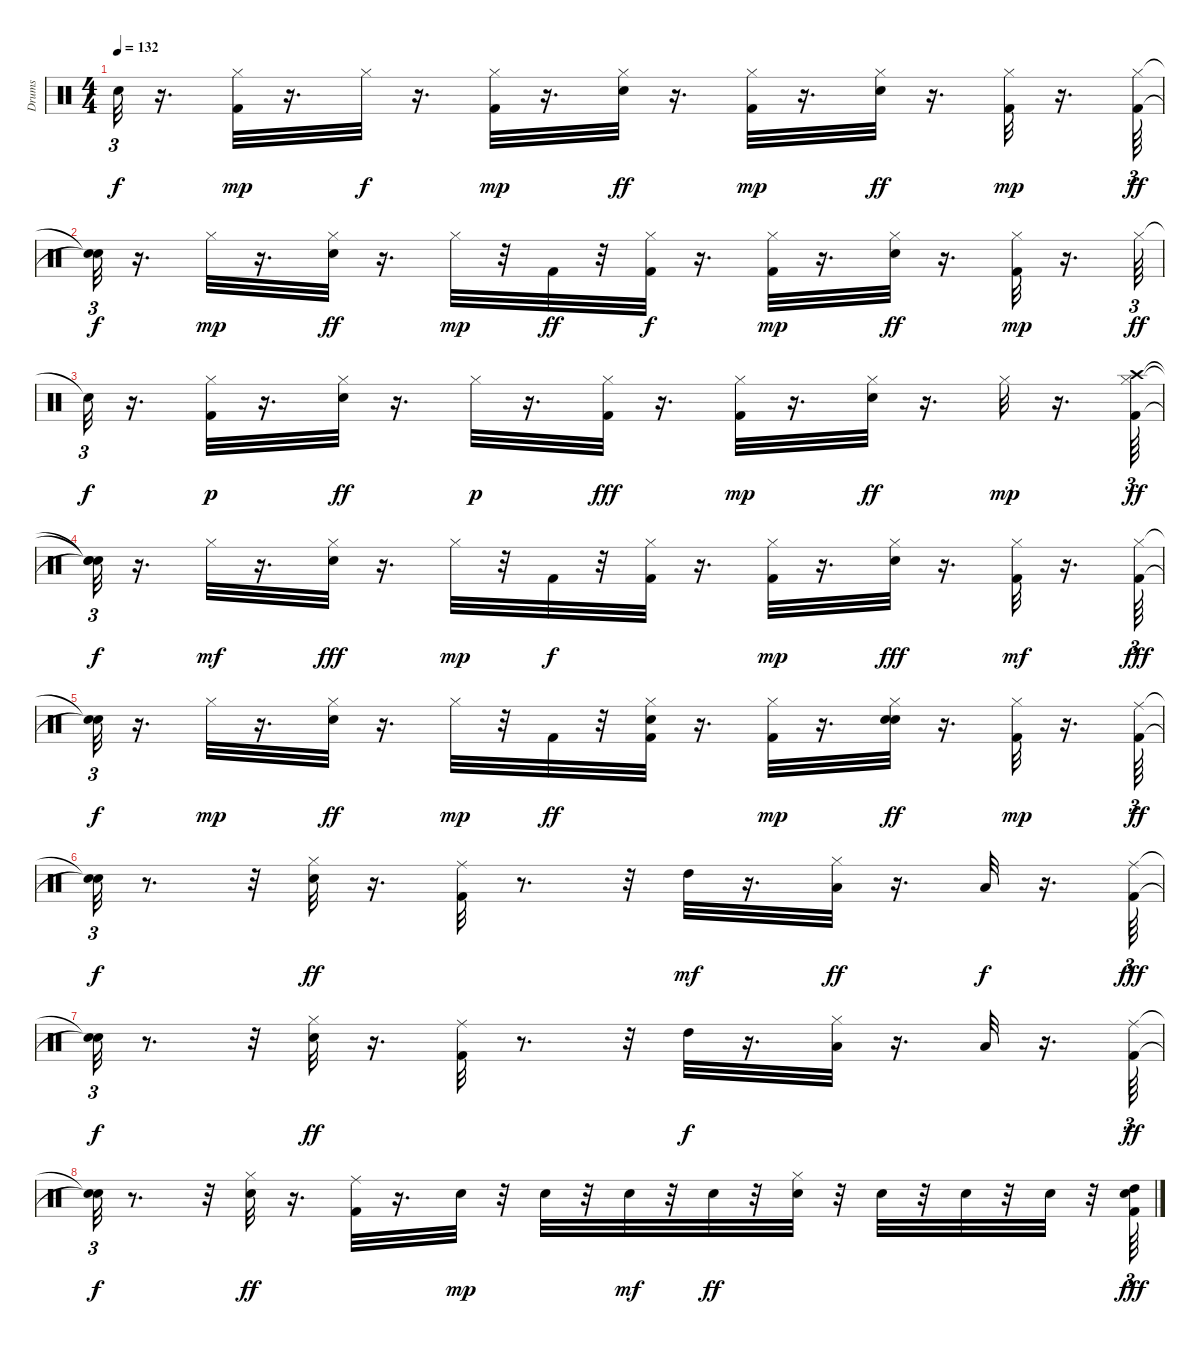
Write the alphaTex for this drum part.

\track ("Drums" "Drums") {instrument percussion}
\staff {score}
\articulation defaults
\ts (4 4)
\tempo 132
\clef neutral
\ks c "Snare (hit)"{t}.32{tu (3 2) dy f}
r.16{d} ("Kick (hit) 2" "Hi-Hat (closed)").32{dy mp} r.16{d} "Hi-Hat (closed)".32{dy f} r.16{d} ("Kick (hit) 2" "Hi-Hat (closed)").32{dy mp} r.16{d} ("Snare (hit) 2" "Hi-Hat (closed)").32{dy ff} r.16{d} ("Kick (hit) 2" "Hi-Hat (closed)").32{dy mp} r.16{d} ("Snare (hit) 2" "Hi-Hat (closed)").32{dy ff} r.16{d} ("Kick (hit) 2" "Hi-Hat (closed)").32{dy mp} r.16{d} ("Kick (hit) 2" "Hi-Hat (closed)").64{tu (3 2) dy ff} |
("Snare (hit)"{t} "Snare (hit)"{t}).32{tu (3 2) dy f} r.16{d} "Hi-Hat (closed)".32{dy mp} r.16{d} ("Snare (hit) 2" "Hi-Hat (closed)").32{dy ff} r.16{d} "Hi-Hat (closed)".32{dy mp} r.32 "Kick (hit) 2".32{dy ff} r.32 ("Kick (hit) 2" "Hi-Hat (closed)").32{dy f} r.16{d} ("Kick (hit) 2" "Hi-Hat (closed)").32{dy mp} r.16{d} ("Snare (hit) 2" "Hi-Hat (closed)").32{dy ff} r.16{d} ("Kick (hit) 2" "Hi-Hat (closed)").32{dy mp} r.16{d} "Hi-Hat (closed)".64{tu (3 2) dy ff} |
"Snare (hit)"{t}.32{tu (3 2) dy f} r.16{d} ("Kick (hit) 2" "Hi-Hat (closed)").32{dy p} r.16{d} ("Snare (hit) 2" "Hi-Hat (closed)").32{dy ff} r.16{d} "Hi-Hat (closed)".32{dy p} r.16{d} ("Kick (hit) 2" "Hi-Hat (closed)").32{dy fff} r.16{d} ("Kick (hit) 2" "Hi-Hat (closed)").32{dy mp} r.16{d} ("Snare (hit) 2" "Hi-Hat (closed)").32{dy ff} r.16{d} "Hi-Hat (closed)".32{dy mp} r.16{d} ("Kick (hit) 2" "Hi-Hat (closed)" "Crash high (hit)").64{tu (3 2) dy ff} |
("Snare (hit)"{t} "Snare (hit)"{t} "Snare (hit)"{t}).32{tu (3 2) dy f} r.16{d} "Hi-Hat (closed)".32{dy mf} r.16{d} ("Snare (hit) 2" "Hi-Hat (closed)").32{dy fff} r.16{d} "Hi-Hat (closed)".32{dy mp} r.32 "Kick (hit) 2".32{dy f} r.32 ("Kick (hit) 2" "Hi-Hat (closed)").32 r.16{d} ("Kick (hit) 2" "Hi-Hat (closed)").32{dy mp} r.16{d} ("Snare (hit) 2" "Hi-Hat (closed)").32{dy fff} r.16{d} ("Kick (hit) 2" "Hi-Hat (closed)").32{dy mf} r.16{d} ("Kick (hit) 2" "Hi-Hat (closed)").64{tu (3 2) dy fff} |
("Snare (hit)"{t} "Snare (hit)"{t}).32{tu (3 2) dy f} r.16{d} "Hi-Hat (closed)".32{dy mp} r.16{d} ("Snare (hit) 2" "Hi-Hat (closed)").32{dy ff} r.16{d} "Hi-Hat (closed)".32{dy mp} r.32 "Kick (hit) 2".32{dy ff} r.32 ("Kick (hit) 2" "Snare (hit) 2" "Hi-Hat (closed)").32 r.16{d} ("Kick (hit) 2" "Hi-Hat (closed)").32{dy mp} r.16{d} ("Snare (hit) 2" "Snare (hit) 2" "Hi-Hat (closed)").32{dy ff} r.16{d} ("Kick (hit) 2" "Hi-Hat (closed)").32{dy mp} r.16{d} ("Kick (hit) 2" "Ride (middle)").64{tu (3 2) dy ff} |
("Snare (hit)"{t} "Snare (hit)"{t}).32{tu (3 2) dy f} r.8{d} r.32 ("Snare (hit) 2" "Hi-Hat (closed)").32{dy ff} r.16{d} ("Kick (hit) 2" "Ride (middle)").32 r.8{d} r.32 "High Tom (hit)".32{dy mf} r.16{d} ("Hi-Hat (closed)" "Low Tom (hit)").32{dy ff} r.16{d} "Low Floor Tom (hit)".32{dy f} r.16{d} ("Kick (hit) 2" "Ride (middle)").64{tu (3 2) dy fff} |
("Snare (hit)"{t} "Snare (hit)"{t}).32{tu (3 2) dy f} r.8{d} r.32 ("Snare (hit) 2" "Hi-Hat (closed)").32{dy ff} r.16{d} ("Kick (hit) 2" "Ride (middle)").32 r.8{d} r.32 "High Tom (hit)".32{dy f} r.16{d} ("Hi-Hat (closed)" "Low Tom (hit)").32 r.16{d} "Low Floor Tom (hit)".32 r.16{d} ("Kick (hit) 2" "Ride (middle)").64{tu (3 2) dy ff} |
("Snare (hit)"{t} "Snare (hit)"{t}).32{tu (3 2) dy f} r.8{d} r.32 ("Snare (hit) 2" "Hi-Hat (closed)").32{dy ff} r.16{d} ("Kick (hit) 2" "Ride (middle)").32 r.16{d} "Snare (hit) 2".32{dy mp} r.32 "Snare (hit) 2".32 r.32 "Snare (hit) 2".32{dy mf} r.32 "Snare (hit) 2".32{dy ff} r.32 ("Snare (hit) 2" "Hi-Hat (closed)").32 r.32 "Snare (hit) 2".32 r.32 "Snare (hit) 2".32 r.32 "Snare (hit) 2".32 r.32 ("Kick (hit) 2" "Snare (hit) 2" "High Tom (hit)").64{tu (3 2) dy fff}
